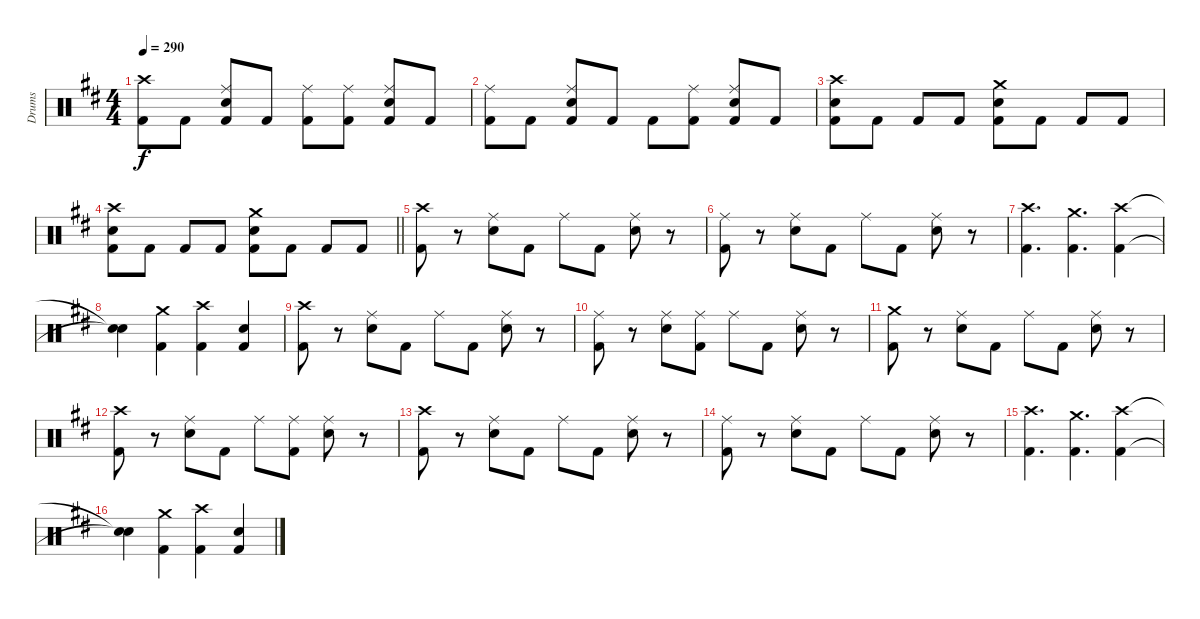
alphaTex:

\track ("Drums" "Drums") {instrument percussion}
\staff {score}
\articulation defaults
\ts (4 4)
\tempo 290
\clef neutral
\ks d
("Crash high (hit)" "Kick (hit) 2").8{dy f} "Kick (hit) 2".8 ("Ride (middle)" "Electric Snare (hit)" "Kick (hit) 2").8 "Kick (hit) 2".8 ("Ride (middle)" "Kick (hit) 2").8 ("Ride (middle)" "Kick (hit) 2").8 ("Ride (middle)" "Electric Snare (hit)" "Kick (hit) 2").8 "Kick (hit) 2".8 |
("Ride (middle)" "Kick (hit) 2").8 "Kick (hit) 2".8 ("Ride (middle)" "Electric Snare (hit)" "Kick (hit) 2").8 "Kick (hit) 2".8 "Kick (hit) 2".8 ("Ride (middle)" "Kick (hit) 2").8 ("Ride (middle)" "Electric Snare (hit)" "Kick (hit) 2").8 "Kick (hit) 2".8 |
("Crash high (hit)" "Electric Snare (hit)" "Kick (hit) 2").8 "Kick (hit) 2".8 "Kick (hit) 2".8 "Kick (hit) 2".8 ("Crash medium (hit)" "Electric Snare (hit)" "Kick (hit) 2").8 "Kick (hit) 2".8 "Kick (hit) 2".8 "Kick (hit) 2".8 |
\barLineRight lightlight
("Crash high (hit)" "Electric Snare (hit)" "Kick (hit) 2").8 "Kick (hit) 2".8 "Kick (hit) 2".8 "Kick (hit) 2".8 ("Crash medium (hit)" "Electric Snare (hit)" "Kick (hit) 2").8 "Kick (hit) 2".8 "Kick (hit) 2".8 "Kick (hit) 2".8 |
("Crash high (hit)" "Kick (hit) 2").8 r.8 ("Ride (middle)" "Electric Snare (hit)").8 "Kick (hit) 2".8 "Ride (middle)".8 "Kick (hit) 2".8 ("Ride (middle)" "Electric Snare (hit)").8 r.8 |
("Ride (middle)" "Kick (hit) 2").8 r.8 ("Ride (middle)" "Electric Snare (hit)").8 "Kick (hit) 2".8 "Ride (middle)".8 "Kick (hit) 2".8 ("Ride (middle)" "Electric Snare (hit)").8 r.8 |
("Crash high (hit)" "Kick (hit) 2").4{d} ("Crash medium (hit)" "Kick (hit) 2").4{d} ("Crash high (hit)" "Kick (hit) 2").4 |
("Snare (hit)"{t} "Snare (hit)"{t}).4 ("Crash medium (hit)" "Kick (hit) 2").4 ("Crash high (hit)" "Kick (hit) 2").4 ("Electric Snare (hit)" "Kick (hit) 2").4 |
("Crash high (hit)" "Kick (hit) 2").8 r.8 ("Ride (middle)" "Electric Snare (hit)").8 "Kick (hit) 2".8 "Ride (middle)".8 "Kick (hit) 2".8 ("Ride (middle)" "Electric Snare (hit)").8 r.8 |
("Ride (middle)" "Kick (hit) 2").8 r.8 ("Ride (middle)" "Electric Snare (hit)").8 ("Ride (middle)" "Kick (hit) 2").8 "Ride (middle)".8 "Kick (hit) 2".8 ("Ride (middle)" "Electric Snare (hit)").8 r.8 |
("Crash medium (hit)" "Kick (hit) 2").8 r.8 ("Ride (middle)" "Electric Snare (hit)").8 "Kick (hit) 2".8 "Ride (middle)".8 "Kick (hit) 2".8 ("Ride (middle)" "Electric Snare (hit)").8 r.8 |
("Crash high (hit)" "Kick (hit) 2").8 r.8 ("Ride (middle)" "Electric Snare (hit)").8 "Kick (hit) 2".8 "Ride (middle)".8 ("Ride (middle)" "Kick (hit) 2").8 ("Ride (middle)" "Electric Snare (hit)").8 r.8 |
("Crash high (hit)" "Kick (hit) 2").8 r.8 ("Ride (middle)" "Electric Snare (hit)").8 "Kick (hit) 2".8 "Ride (middle)".8 "Kick (hit) 2".8 ("Ride (middle)" "Electric Snare (hit)").8 r.8 |
("Ride (middle)" "Kick (hit) 2").8 r.8 ("Ride (middle)" "Electric Snare (hit)").8 "Kick (hit) 2".8 "Ride (middle)".8 "Kick (hit) 2".8 ("Ride (middle)" "Electric Snare (hit)").8 r.8 |
("Crash high (hit)" "Kick (hit) 2").4{d} ("Crash medium (hit)" "Kick (hit) 2").4{d} ("Crash high (hit)" "Kick (hit) 2").4 |
("Snare (hit)"{t} "Snare (hit)"{t}).4 ("Crash medium (hit)" "Kick (hit) 2").4 ("Crash high (hit)" "Kick (hit) 2").4 ("Electric Snare (hit)" "Kick (hit) 2").4
